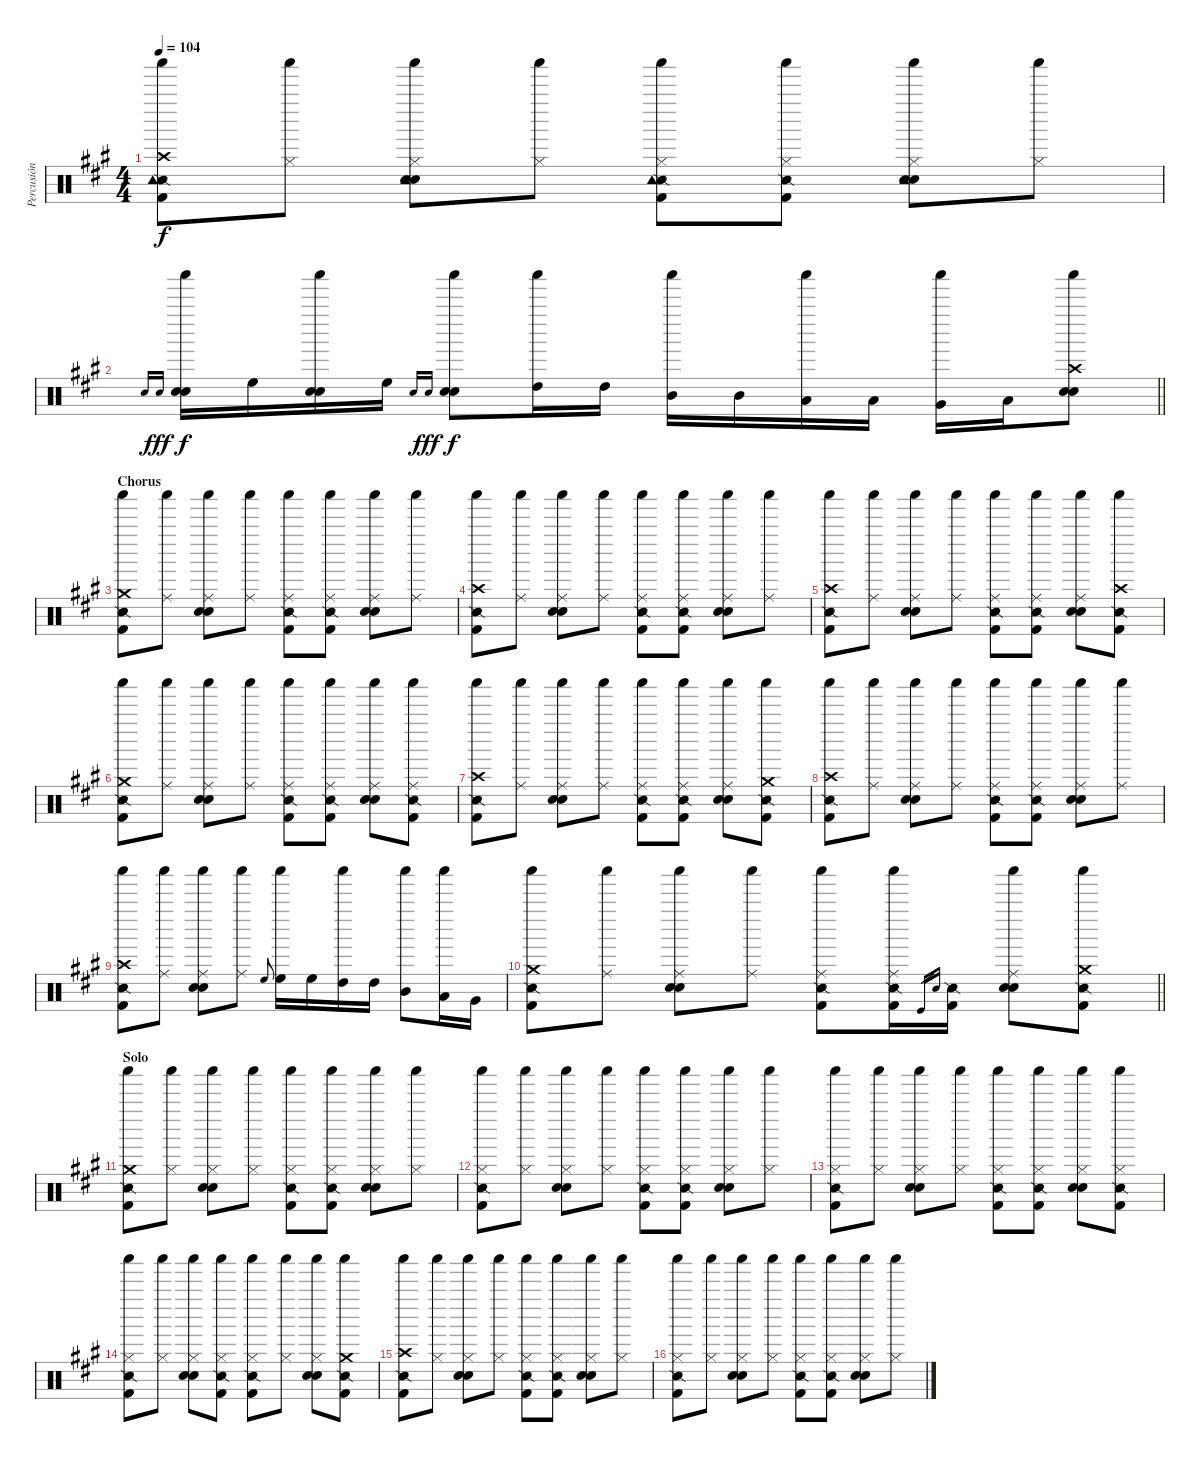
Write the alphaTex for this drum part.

\track ("Percusión" "Percusión") {instrument percussion}
\staff {score}
\articulation defaults
\ts (4 4)
\tempo 104
\clef neutral
\ks a
("Crash high (hit)" "Kick (hit) 2" "Snare (side stick) 2" "Tambourine (hit)" "Shaker (hit)").8{dy f} ("Hi-Hat (closed)" "Shaker (hit)").8 ("Hi-Hat (closed)" "Snare (hit) 2" "Electric Snare (hit)" "Tambourine (hit)" "Shaker (hit)").8 ("Hi-Hat (closed)" "Shaker (hit)").8 ("Hi-Hat (closed)" "Kick (hit) 2" "Snare (side stick) 2" "Tambourine (hit)" "Shaker (hit)").8 ("Hi-Hat (closed)" "Kick (hit) 2" "Snare (side stick) 2" "Shaker (hit)").8 ("Hi-Hat (closed)" "Snare (hit) 2" "Electric Snare (hit)" "Tambourine (hit)" "Shaker (hit)").8 ("Hi-Hat (closed)" "Shaker (hit)").8 |
\barLineRight lightlight "Snare (hit) 2".16{gr onbeat} "Electric Snare (hit)".16{gr onbeat dy fff}
("Snare (hit) 2" "Electric Snare (hit)" "Shaker (hit)").16{dy f} "High Floor Tom (hit)".16 ("Snare (hit) 2" "Electric Snare (hit)" "Shaker (hit)").16 "High Floor Tom (hit)".16 "Snare (hit) 2".16{gr onbeat} "Electric Snare (hit)".16{gr onbeat dy fff} ("Snare (hit) 2" "Electric Snare (hit)" "Shaker (hit)").8{dy f} ("High Tom (hit)" "Shaker (hit)").16 "High Tom (hit)".16 ("Mid Tom (hit)" "Shaker (hit)").16 "Mid Tom (hit)".16 ("Low Tom (hit)" "Shaker (hit)").16 "Low Tom (hit)".16 ("Very Low Tom (hit)" "Shaker (hit)").16 "Low Floor Tom (hit)".16 ("Crash high (hit)" "Snare (hit) 2" "Electric Snare (hit)" "Shaker (hit)").8 |
\section ("" "Chorus")
("Crash medium (hit)" "Kick (hit) 2" "Snare (side stick) 2" "Shaker (hit)").8 ("Ride (middle)" "Shaker (hit)").8 ("Ride (middle)" "Snare (hit) 2" "Electric Snare (hit)" "Shaker (hit)").8 ("Ride (middle)" "Shaker (hit)").8 ("Ride (middle)" "Kick (hit) 2" "Snare (side stick) 2" "Shaker (hit)").8 ("Ride (middle)" "Kick (hit) 2" "Snare (side stick) 2" "Shaker (hit)").8 ("Ride (middle)" "Snare (hit) 2" "Electric Snare (hit)" "Shaker (hit)").8 ("Ride (middle)" "Shaker (hit)").8 |
("Crash high (hit)" "Kick (hit) 2" "Snare (side stick) 2" "Shaker (hit)").8 ("Ride (middle)" "Shaker (hit)").8 ("Ride (middle)" "Snare (hit) 2" "Electric Snare (hit)" "Shaker (hit)").8 ("Ride (middle)" "Shaker (hit)").8 ("Ride (middle)" "Kick (hit) 2" "Snare (side stick) 2" "Shaker (hit)").8 ("Ride (middle)" "Kick (hit) 2" "Snare (side stick) 2" "Shaker (hit)").8 ("Ride (middle)" "Snare (hit) 2" "Electric Snare (hit)" "Shaker (hit)").8 ("Ride (middle)" "Shaker (hit)").8 |
("Crash high (hit)" "Kick (hit) 2" "Snare (side stick) 2" "Shaker (hit)").8 ("Ride (middle)" "Shaker (hit)").8 ("Ride (middle)" "Snare (hit) 2" "Electric Snare (hit)" "Shaker (hit)").8 ("Ride (middle)" "Shaker (hit)").8 ("Ride (middle)" "Kick (hit) 2" "Snare (side stick) 2" "Shaker (hit)").8 ("Ride (middle)" "Kick (hit) 2" "Snare (side stick) 2" "Shaker (hit)").8 ("Ride (middle)" "Snare (hit) 2" "Electric Snare (hit)" "Shaker (hit)").8 ("Crash high (hit)" "Kick (hit) 2" "Snare (side stick) 2" "Shaker (hit)").8 |
("Crash medium (hit)" "Kick (hit) 2" "Snare (side stick) 2" "Shaker (hit)").8 ("Ride (middle)" "Shaker (hit)").8 ("Ride (middle)" "Snare (hit) 2" "Electric Snare (hit)" "Shaker (hit)").8 ("Ride (middle)" "Shaker (hit)").8 ("Ride (middle)" "Kick (hit) 2" "Snare (side stick) 2" "Shaker (hit)").8 ("Ride (middle)" "Kick (hit) 2" "Snare (side stick) 2" "Shaker (hit)").8 ("Ride (middle)" "Snare (hit) 2" "Electric Snare (hit)" "Shaker (hit)").8 ("Ride (middle)" "Kick (hit) 2" "Snare (side stick) 2" "Shaker (hit)").8 |
("Crash high (hit)" "Kick (hit) 2" "Snare (side stick) 2" "Shaker (hit)").8 ("Ride (middle)" "Shaker (hit)").8 ("Ride (middle)" "Snare (hit) 2" "Electric Snare (hit)" "Shaker (hit)").8 ("Ride (middle)" "Shaker (hit)").8 ("Ride (middle)" "Kick (hit) 2" "Snare (side stick) 2" "Shaker (hit)").8 ("Ride (middle)" "Kick (hit) 2" "Snare (side stick) 2" "Shaker (hit)").8 ("Ride (middle)" "Snare (hit) 2" "Electric Snare (hit)" "Shaker (hit)").8 ("Crash medium (hit)" "Kick (hit) 2" "Snare (side stick) 2" "Shaker (hit)").8 |
("Crash high (hit)" "Kick (hit) 2" "Snare (side stick) 2" "Shaker (hit)").8 ("Ride (middle)" "Shaker (hit)").8 ("Ride (middle)" "Snare (hit) 2" "Electric Snare (hit)" "Shaker (hit)").8 ("Ride (middle)" "Shaker (hit)").8 ("Ride (middle)" "Kick (hit) 2" "Snare (side stick) 2" "Shaker (hit)").8 ("Ride (middle)" "Kick (hit) 2" "Snare (side stick) 2" "Shaker (hit)").8 ("Ride (middle)" "Snare (hit) 2" "Electric Snare (hit)" "Shaker (hit)").8 ("Ride (middle)" "Shaker (hit)").8 |
("Crash high (hit)" "Kick (hit) 2" "Snare (side stick) 2" "Shaker (hit)").8 ("Ride (middle)" "Shaker (hit)").8 ("Ride (middle)" "Snare (hit) 2" "Electric Snare (hit)" "Shaker (hit)").8 ("Ride (middle)" "Shaker (hit)").8 "High Floor Tom (hit)".8{gr onbeat} ("High Floor Tom (hit)" "Shaker (hit)").16 "High Floor Tom (hit)".16 ("High Tom (hit)" "Shaker (hit)").16 "High Tom (hit)".16 ("Mid Tom (hit)" "Shaker (hit)").8 ("Low Tom (hit)" "Shaker (hit)").16 "Very Low Tom (hit)".16 |
\barLineRight lightlight
("Crash medium (hit)" "Kick (hit) 2" "Snare (side stick) 2" "Shaker (hit)").8 ("Ride (middle)" "Shaker (hit)").8 ("Ride (middle)" "Snare (hit) 2" "Electric Snare (hit)" "Shaker (hit)").8 ("Ride (middle)" "Shaker (hit)").8 ("Ride (middle)" "Kick (hit) 2" "Snare (side stick) 2" "Shaker (hit)").8 ("Ride (middle)" "Kick (hit) 2" "Snare (side stick) 2" "Shaker (hit)").16 "Kick (hit)".16{gr} "Snare (hit)".16{gr} ("Kick (hit) 2" "Snare (side stick) 2").16 ("Ride (middle)" "Snare (hit) 2" "Electric Snare (hit)" "Shaker (hit)").8 ("Crash medium (hit)" "Kick (hit) 2" "Snare (side stick) 2" "Shaker (hit)").8 |
\section ("" "Solo")
("Crash medium (hit)" "Kick (hit) 2" "Snare (side stick) 2" "Shaker (hit)").8 ("Hi-Hat (closed)" "Shaker (hit)").8 ("Hi-Hat (closed)" "Snare (hit) 2" "Electric Snare (hit)" "Shaker (hit)").8 ("Hi-Hat (closed)" "Shaker (hit)").8 ("Hi-Hat (closed)" "Kick (hit) 2" "Snare (side stick) 2" "Shaker (hit)").8 ("Hi-Hat (closed)" "Kick (hit) 2" "Snare (side stick) 2" "Shaker (hit)").8 ("Hi-Hat (closed)" "Snare (hit) 2" "Electric Snare (hit)" "Shaker (hit)").8 ("Hi-Hat (closed)" "Shaker (hit)").8 |
("Hi-Hat (closed)" "Kick (hit) 2" "Snare (side stick) 2" "Shaker (hit)").8 ("Hi-Hat (closed)" "Shaker (hit)").8 ("Hi-Hat (closed)" "Snare (hit) 2" "Electric Snare (hit)" "Shaker (hit)").8 ("Hi-Hat (closed)" "Shaker (hit)").8 ("Hi-Hat (closed)" "Kick (hit) 2" "Snare (side stick) 2" "Shaker (hit)").8 ("Hi-Hat (closed)" "Kick (hit) 2" "Snare (side stick) 2" "Shaker (hit)").8 ("Hi-Hat (closed)" "Snare (hit) 2" "Electric Snare (hit)" "Shaker (hit)").8 ("Hi-Hat (closed)" "Shaker (hit)").8 |
("Hi-Hat (closed)" "Kick (hit) 2" "Snare (side stick) 2" "Shaker (hit)").8 ("Hi-Hat (closed)" "Shaker (hit)").8 ("Hi-Hat (closed)" "Snare (hit) 2" "Electric Snare (hit)" "Shaker (hit)").8 ("Hi-Hat (closed)" "Shaker (hit)").8 ("Hi-Hat (closed)" "Kick (hit) 2" "Snare (side stick) 2" "Shaker (hit)").8 ("Hi-Hat (closed)" "Kick (hit) 2" "Snare (side stick) 2" "Shaker (hit)").8 ("Hi-Hat (closed)" "Snare (hit) 2" "Electric Snare (hit)" "Shaker (hit)").8 ("Hi-Hat (closed)" "Kick (hit) 2" "Snare (side stick) 2" "Shaker (hit)").8 |
("Hi-Hat (closed)" "Kick (hit) 2" "Snare (side stick) 2" "Shaker (hit)").8 ("Hi-Hat (closed)" "Shaker (hit)").8 ("Hi-Hat (closed)" "Snare (hit) 2" "Electric Snare (hit)" "Shaker (hit)").8 ("Hi-Hat (closed)" "Kick (hit) 2" "Snare (side stick) 2" "Shaker (hit)").8 ("Hi-Hat (closed)" "Kick (hit) 2" "Snare (side stick) 2" "Shaker (hit)").8 ("Hi-Hat (closed)" "Shaker (hit)").8 ("Hi-Hat (closed)" "Snare (hit) 2" "Electric Snare (hit)" "Shaker (hit)").8 ("Crash medium (hit)" "Kick (hit) 2" "Snare (side stick) 2" "Shaker (hit)").8 |
("Crash high (hit)" "Kick (hit) 2" "Snare (side stick) 2" "Shaker (hit)").8 ("Hi-Hat (closed)" "Shaker (hit)").8 ("Hi-Hat (closed)" "Snare (hit) 2" "Electric Snare (hit)" "Shaker (hit)").8 ("Hi-Hat (closed)" "Shaker (hit)").8 ("Hi-Hat (closed)" "Kick (hit) 2" "Snare (side stick) 2" "Shaker (hit)").8 ("Hi-Hat (closed)" "Kick (hit) 2" "Snare (side stick) 2" "Shaker (hit)").8 ("Hi-Hat (closed)" "Snare (hit) 2" "Electric Snare (hit)" "Shaker (hit)").8 ("Hi-Hat (closed)" "Shaker (hit)").8 |
("Hi-Hat (closed)" "Kick (hit) 2" "Snare (side stick) 2" "Shaker (hit)").8 ("Hi-Hat (closed)" "Shaker (hit)").8 ("Hi-Hat (closed)" "Snare (hit) 2" "Electric Snare (hit)" "Shaker (hit)").8 ("Hi-Hat (closed)" "Shaker (hit)").8 ("Hi-Hat (closed)" "Kick (hit) 2" "Snare (side stick) 2" "Shaker (hit)").8 ("Hi-Hat (closed)" "Kick (hit) 2" "Snare (side stick) 2" "Shaker (hit)").8 ("Hi-Hat (closed)" "Snare (hit) 2" "Electric Snare (hit)" "Shaker (hit)").8 ("Hi-Hat (closed)" "Shaker (hit)").8
